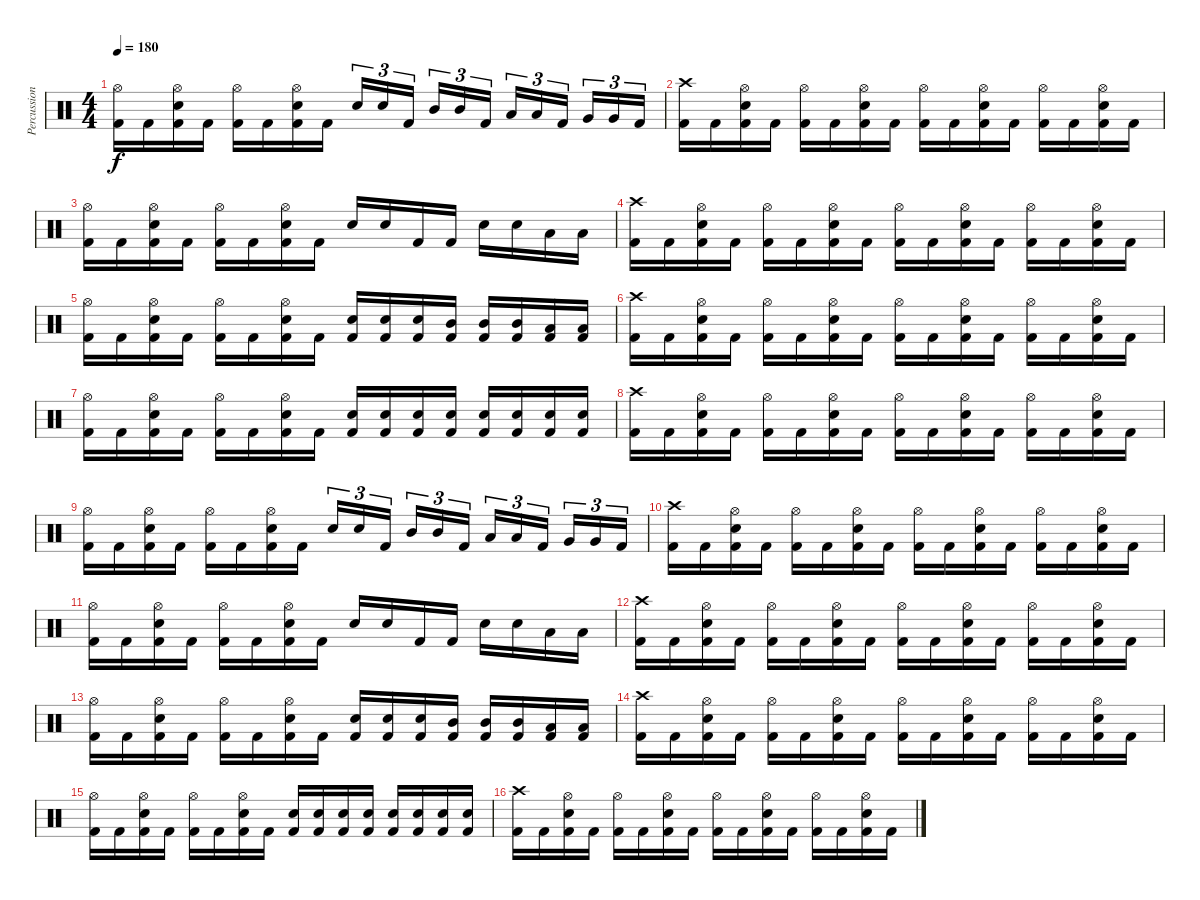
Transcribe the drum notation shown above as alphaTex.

\track ("Percussion" "Percussion") {instrument percussion}
\staff {score}
\articulation defaults
\ts (4 4)
\tempo 180
\clef neutral
\ks c
("Hi-Hat (open)" "Kick (hit) 2").16{dy f} "Kick (hit) 2".16 ("Hi-Hat (open)" "Snare (hit) 2" "Kick (hit) 2").16 "Kick (hit) 2".16 ("Hi-Hat (open)" "Kick (hit) 2").16 "Kick (hit) 2".16 ("Hi-Hat (open)" "Snare (hit) 2" "Kick (hit) 2").16 "Kick (hit) 2".16 "Snare (hit) 2".16{tu (3 2)} "Snare (hit) 2".16{tu (3 2)} "Kick (hit) 2".16{tu (3 2)} "Mid Tom (hit)".16{tu (3 2)} "Mid Tom (hit)".16{tu (3 2)} "Kick (hit) 2".16{tu (3 2)} "Low Tom (hit)".16{tu (3 2)} "Low Tom (hit)".16{tu (3 2)} "Kick (hit) 2".16{tu (3 2)} "Very Low Tom (hit)".16{tu (3 2)} "Very Low Tom (hit)".16{tu (3 2)} "Kick (hit) 2".16{tu (3 2)} |
("Crash high (hit)" "Kick (hit) 2").16 "Kick (hit) 2".16 ("Hi-Hat (open)" "Snare (hit) 2" "Kick (hit) 2").16 "Kick (hit) 2".16 ("Hi-Hat (open)" "Kick (hit) 2").16 "Kick (hit) 2".16 ("Hi-Hat (open)" "Snare (hit) 2" "Kick (hit) 2").16 "Kick (hit) 2".16 ("Hi-Hat (open)" "Kick (hit) 2").16 "Kick (hit) 2".16 ("Hi-Hat (open)" "Snare (hit) 2" "Kick (hit) 2").16 "Kick (hit) 2".16 ("Hi-Hat (open)" "Kick (hit) 2").16 "Kick (hit) 2".16 ("Hi-Hat (open)" "Snare (hit) 2" "Kick (hit) 2").16 "Kick (hit) 2".16 |
("Hi-Hat (open)" "Kick (hit) 2").16 "Kick (hit) 2".16 ("Hi-Hat (open)" "Snare (hit) 2" "Kick (hit) 2").16 "Kick (hit) 2".16 ("Hi-Hat (open)" "Kick (hit) 2").16 "Kick (hit) 2".16 ("Hi-Hat (open)" "Snare (hit) 2" "Kick (hit) 2").16 "Kick (hit) 2".16 "Snare (hit) 2".16 "Snare (hit) 2".16 "Kick (hit) 2".16 "Kick (hit) 2".16 "Snare (hit) 2".16 "Snare (hit) 2".16 "Low Tom (hit)".16 "Low Tom (hit)".16 |
("Crash high (hit)" "Kick (hit) 2").16 "Kick (hit) 2".16 ("Hi-Hat (open)" "Snare (hit) 2" "Kick (hit) 2").16 "Kick (hit) 2".16 ("Hi-Hat (open)" "Kick (hit) 2").16 "Kick (hit) 2".16 ("Hi-Hat (open)" "Snare (hit) 2" "Kick (hit) 2").16 "Kick (hit) 2".16 ("Hi-Hat (open)" "Kick (hit) 2").16 "Kick (hit) 2".16 ("Hi-Hat (open)" "Snare (hit) 2" "Kick (hit) 2").16 "Kick (hit) 2".16 ("Hi-Hat (open)" "Kick (hit) 2").16 "Kick (hit) 2".16 ("Hi-Hat (open)" "Snare (hit) 2" "Kick (hit) 2").16 "Kick (hit) 2".16 |
("Hi-Hat (open)" "Kick (hit) 2").16 "Kick (hit) 2".16 ("Hi-Hat (open)" "Snare (hit) 2" "Kick (hit) 2").16 "Kick (hit) 2".16 ("Hi-Hat (open)" "Kick (hit) 2").16 "Kick (hit) 2".16 ("Hi-Hat (open)" "Snare (hit) 2" "Kick (hit) 2").16 "Kick (hit) 2".16 ("Snare (hit) 2" "Kick (hit) 2").16 ("Snare (hit) 2" "Kick (hit) 2").16 ("Snare (hit) 2" "Kick (hit) 2").16 ("Mid Tom (hit)" "Kick (hit) 2").16 ("Mid Tom (hit)" "Kick (hit) 2").16 ("Mid Tom (hit)" "Kick (hit) 2").16 ("Low Tom (hit)" "Kick (hit) 2").16 ("Low Tom (hit)" "Kick (hit) 2").16 |
("Crash high (hit)" "Kick (hit) 2").16 "Kick (hit) 2".16 ("Hi-Hat (open)" "Snare (hit) 2" "Kick (hit) 2").16 "Kick (hit) 2".16 ("Hi-Hat (open)" "Kick (hit) 2").16 "Kick (hit) 2".16 ("Hi-Hat (open)" "Snare (hit) 2" "Kick (hit) 2").16 "Kick (hit) 2".16 ("Hi-Hat (open)" "Kick (hit) 2").16 "Kick (hit) 2".16 ("Hi-Hat (open)" "Snare (hit) 2" "Kick (hit) 2").16 "Kick (hit) 2".16 ("Hi-Hat (open)" "Kick (hit) 2").16 "Kick (hit) 2".16 ("Hi-Hat (open)" "Snare (hit) 2" "Kick (hit) 2").16 "Kick (hit) 2".16 |
("Hi-Hat (open)" "Kick (hit) 2").16 "Kick (hit) 2".16 ("Hi-Hat (open)" "Snare (hit) 2" "Kick (hit) 2").16 "Kick (hit) 2".16 ("Hi-Hat (open)" "Kick (hit) 2").16 "Kick (hit) 2".16 ("Hi-Hat (open)" "Snare (hit) 2" "Kick (hit) 2").16 "Kick (hit) 2".16 ("Snare (hit) 2" "Kick (hit) 2").16 ("Snare (hit) 2" "Kick (hit) 2").16 ("Snare (hit) 2" "Kick (hit) 2").16 ("Snare (hit) 2" "Kick (hit) 2").16 ("Snare (hit) 2" "Kick (hit) 2").16 ("Snare (hit) 2" "Kick (hit) 2").16 ("Snare (hit) 2" "Kick (hit) 2").16 ("Snare (hit) 2" "Kick (hit) 2").16 |
("Crash high (hit)" "Kick (hit) 2").16 "Kick (hit) 2".16 ("Hi-Hat (open)" "Snare (hit) 2" "Kick (hit) 2").16 "Kick (hit) 2".16 ("Hi-Hat (open)" "Kick (hit) 2").16 "Kick (hit) 2".16 ("Hi-Hat (open)" "Snare (hit) 2" "Kick (hit) 2").16 "Kick (hit) 2".16 ("Hi-Hat (open)" "Kick (hit) 2").16 "Kick (hit) 2".16 ("Hi-Hat (open)" "Snare (hit) 2" "Kick (hit) 2").16 "Kick (hit) 2".16 ("Hi-Hat (open)" "Kick (hit) 2").16 "Kick (hit) 2".16 ("Hi-Hat (open)" "Snare (hit) 2" "Kick (hit) 2").16 "Kick (hit) 2".16 |
("Hi-Hat (open)" "Kick (hit) 2").16 "Kick (hit) 2".16 ("Hi-Hat (open)" "Snare (hit) 2" "Kick (hit) 2").16 "Kick (hit) 2".16 ("Hi-Hat (open)" "Kick (hit) 2").16 "Kick (hit) 2".16 ("Hi-Hat (open)" "Snare (hit) 2" "Kick (hit) 2").16 "Kick (hit) 2".16 "Snare (hit) 2".16{tu (3 2)} "Snare (hit) 2".16{tu (3 2)} "Kick (hit) 2".16{tu (3 2)} "Mid Tom (hit)".16{tu (3 2)} "Mid Tom (hit)".16{tu (3 2)} "Kick (hit) 2".16{tu (3 2)} "Low Tom (hit)".16{tu (3 2)} "Low Tom (hit)".16{tu (3 2)} "Kick (hit) 2".16{tu (3 2)} "Very Low Tom (hit)".16{tu (3 2)} "Very Low Tom (hit)".16{tu (3 2)} "Kick (hit) 2".16{tu (3 2)} |
("Crash high (hit)" "Kick (hit) 2").16 "Kick (hit) 2".16 ("Hi-Hat (open)" "Snare (hit) 2" "Kick (hit) 2").16 "Kick (hit) 2".16 ("Hi-Hat (open)" "Kick (hit) 2").16 "Kick (hit) 2".16 ("Hi-Hat (open)" "Snare (hit) 2" "Kick (hit) 2").16 "Kick (hit) 2".16 ("Hi-Hat (open)" "Kick (hit) 2").16 "Kick (hit) 2".16 ("Hi-Hat (open)" "Snare (hit) 2" "Kick (hit) 2").16 "Kick (hit) 2".16 ("Hi-Hat (open)" "Kick (hit) 2").16 "Kick (hit) 2".16 ("Hi-Hat (open)" "Snare (hit) 2" "Kick (hit) 2").16 "Kick (hit) 2".16 |
("Hi-Hat (open)" "Kick (hit) 2").16 "Kick (hit) 2".16 ("Hi-Hat (open)" "Snare (hit) 2" "Kick (hit) 2").16 "Kick (hit) 2".16 ("Hi-Hat (open)" "Kick (hit) 2").16 "Kick (hit) 2".16 ("Hi-Hat (open)" "Snare (hit) 2" "Kick (hit) 2").16 "Kick (hit) 2".16 "Snare (hit) 2".16 "Snare (hit) 2".16 "Kick (hit) 2".16 "Kick (hit) 2".16 "Snare (hit) 2".16 "Snare (hit) 2".16 "Low Tom (hit)".16 "Low Tom (hit)".16 |
("Crash high (hit)" "Kick (hit) 2").16 "Kick (hit) 2".16 ("Hi-Hat (open)" "Snare (hit) 2" "Kick (hit) 2").16 "Kick (hit) 2".16 ("Hi-Hat (open)" "Kick (hit) 2").16 "Kick (hit) 2".16 ("Hi-Hat (open)" "Snare (hit) 2" "Kick (hit) 2").16 "Kick (hit) 2".16 ("Hi-Hat (open)" "Kick (hit) 2").16 "Kick (hit) 2".16 ("Hi-Hat (open)" "Snare (hit) 2" "Kick (hit) 2").16 "Kick (hit) 2".16 ("Hi-Hat (open)" "Kick (hit) 2").16 "Kick (hit) 2".16 ("Hi-Hat (open)" "Snare (hit) 2" "Kick (hit) 2").16 "Kick (hit) 2".16 |
("Hi-Hat (open)" "Kick (hit) 2").16 "Kick (hit) 2".16 ("Hi-Hat (open)" "Snare (hit) 2" "Kick (hit) 2").16 "Kick (hit) 2".16 ("Hi-Hat (open)" "Kick (hit) 2").16 "Kick (hit) 2".16 ("Hi-Hat (open)" "Snare (hit) 2" "Kick (hit) 2").16 "Kick (hit) 2".16 ("Snare (hit) 2" "Kick (hit) 2").16 ("Snare (hit) 2" "Kick (hit) 2").16 ("Snare (hit) 2" "Kick (hit) 2").16 ("Mid Tom (hit)" "Kick (hit) 2").16 ("Mid Tom (hit)" "Kick (hit) 2").16 ("Mid Tom (hit)" "Kick (hit) 2").16 ("Low Tom (hit)" "Kick (hit) 2").16 ("Low Tom (hit)" "Kick (hit) 2").16 |
("Crash high (hit)" "Kick (hit) 2").16 "Kick (hit) 2".16 ("Hi-Hat (open)" "Snare (hit) 2" "Kick (hit) 2").16 "Kick (hit) 2".16 ("Hi-Hat (open)" "Kick (hit) 2").16 "Kick (hit) 2".16 ("Hi-Hat (open)" "Snare (hit) 2" "Kick (hit) 2").16 "Kick (hit) 2".16 ("Hi-Hat (open)" "Kick (hit) 2").16 "Kick (hit) 2".16 ("Hi-Hat (open)" "Snare (hit) 2" "Kick (hit) 2").16 "Kick (hit) 2".16 ("Hi-Hat (open)" "Kick (hit) 2").16 "Kick (hit) 2".16 ("Hi-Hat (open)" "Snare (hit) 2" "Kick (hit) 2").16 "Kick (hit) 2".16 |
("Hi-Hat (open)" "Kick (hit) 2").16 "Kick (hit) 2".16 ("Hi-Hat (open)" "Snare (hit) 2" "Kick (hit) 2").16 "Kick (hit) 2".16 ("Hi-Hat (open)" "Kick (hit) 2").16 "Kick (hit) 2".16 ("Hi-Hat (open)" "Snare (hit) 2" "Kick (hit) 2").16 "Kick (hit) 2".16 ("Snare (hit) 2" "Kick (hit) 2").16 ("Snare (hit) 2" "Kick (hit) 2").16 ("Snare (hit) 2" "Kick (hit) 2").16 ("Snare (hit) 2" "Kick (hit) 2").16 ("Snare (hit) 2" "Kick (hit) 2").16 ("Snare (hit) 2" "Kick (hit) 2").16 ("Snare (hit) 2" "Kick (hit) 2").16 ("Snare (hit) 2" "Kick (hit) 2").16 |
("Crash high (hit)" "Kick (hit) 2").16 "Kick (hit) 2".16 ("Hi-Hat (open)" "Snare (hit) 2" "Kick (hit) 2").16 "Kick (hit) 2".16 ("Hi-Hat (open)" "Kick (hit) 2").16 "Kick (hit) 2".16 ("Hi-Hat (open)" "Snare (hit) 2" "Kick (hit) 2").16 "Kick (hit) 2".16 ("Hi-Hat (open)" "Kick (hit) 2").16 "Kick (hit) 2".16 ("Hi-Hat (open)" "Snare (hit) 2" "Kick (hit) 2").16 "Kick (hit) 2".16 ("Hi-Hat (open)" "Kick (hit) 2").16 "Kick (hit) 2".16 ("Hi-Hat (open)" "Snare (hit) 2" "Kick (hit) 2").16 "Kick (hit) 2".16
